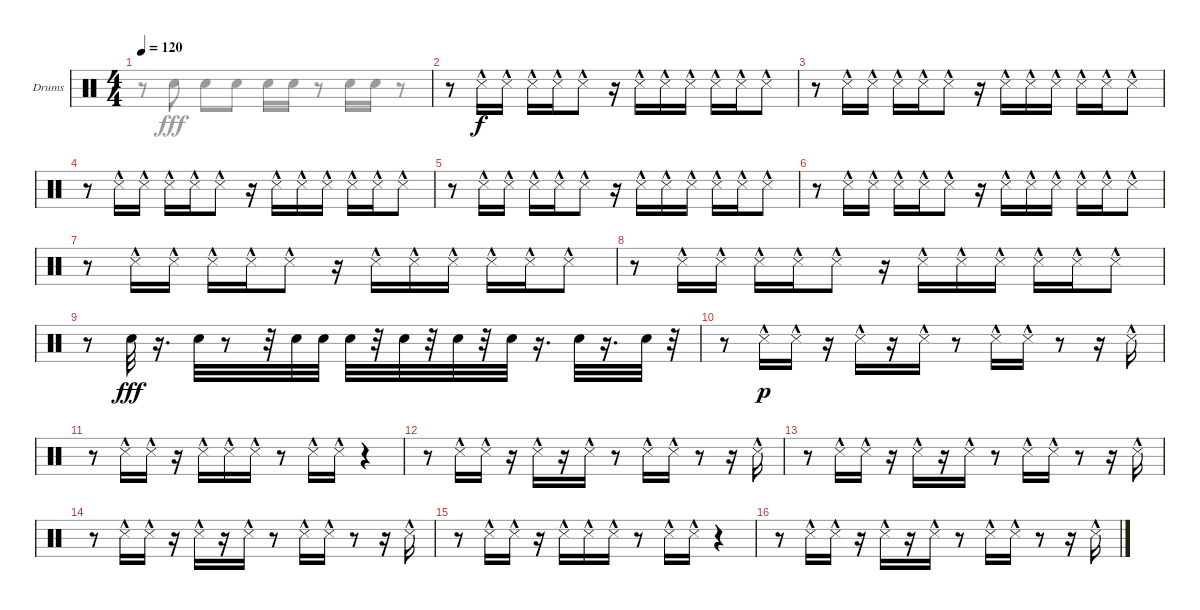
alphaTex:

\defaultSystemsLayout 4
\bracketExtendMode nobrackets
\firstSystemTrackNameOrientation horizontal
\otherSystemsTrackNameOrientation horizontal
\track ("Drumkit" "Drums") {instrument percussion}
\staff {score}
\articulation defaults
\voice
\ts (4 4)
\tempo 120
\clef neutral
\ks c
|
r.8 "Snare (side stick) 3"{hac}.16 "Snare (side stick) 3"{hac}.16 "Snare (side stick) 3"{hac}.16 "Snare (side stick) 3"{hac}.16 "Snare (side stick) 3"{hac}.8 r.16 "Snare (side stick) 3"{hac}.16 "Snare (side stick) 3"{hac}.16 "Snare (side stick) 3"{hac}.16 "Snare (side stick) 3"{hac}.16 "Snare (side stick) 3"{hac}.16 "Snare (side stick) 3"{hac}.8 |
r.8 "Snare (side stick) 3"{hac}.16 "Snare (side stick) 3"{hac}.16 "Snare (side stick) 3"{hac}.16 "Snare (side stick) 3"{hac}.16 "Snare (side stick) 3"{hac}.8 r.16 "Snare (side stick) 3"{hac}.16 "Snare (side stick) 3"{hac}.16 "Snare (side stick) 3"{hac}.16 "Snare (side stick) 3"{hac}.16 "Snare (side stick) 3"{hac}.16 "Snare (side stick) 3"{hac}.8 |
r.8 "Snare (side stick) 3"{hac}.16 "Snare (side stick) 3"{hac}.16 "Snare (side stick) 3"{hac}.16 "Snare (side stick) 3"{hac}.16 "Snare (side stick) 3"{hac}.8 r.16 "Snare (side stick) 3"{hac}.16 "Snare (side stick) 3"{hac}.16 "Snare (side stick) 3"{hac}.16 "Snare (side stick) 3"{hac}.16 "Snare (side stick) 3"{hac}.16 "Snare (side stick) 3"{hac}.8 |
r.8 "Snare (side stick) 3"{hac}.16 "Snare (side stick) 3"{hac}.16 "Snare (side stick) 3"{hac}.16 "Snare (side stick) 3"{hac}.16 "Snare (side stick) 3"{hac}.8 r.16 "Snare (side stick) 3"{hac}.16 "Snare (side stick) 3"{hac}.16 "Snare (side stick) 3"{hac}.16 "Snare (side stick) 3"{hac}.16 "Snare (side stick) 3"{hac}.16 "Snare (side stick) 3"{hac}.8 |
r.8 "Snare (side stick) 3"{hac}.16 "Snare (side stick) 3"{hac}.16 "Snare (side stick) 3"{hac}.16 "Snare (side stick) 3"{hac}.16 "Snare (side stick) 3"{hac}.8 r.16 "Snare (side stick) 3"{hac}.16 "Snare (side stick) 3"{hac}.16 "Snare (side stick) 3"{hac}.16 "Snare (side stick) 3"{hac}.16 "Snare (side stick) 3"{hac}.16 "Snare (side stick) 3"{hac}.8 |
r.8 "Snare (side stick) 3"{hac}.16 "Snare (side stick) 3"{hac}.16 "Snare (side stick) 3"{hac}.16 "Snare (side stick) 3"{hac}.16 "Snare (side stick) 3"{hac}.8 r.16 "Snare (side stick) 3"{hac}.16 "Snare (side stick) 3"{hac}.16 "Snare (side stick) 3"{hac}.16 "Snare (side stick) 3"{hac}.16 "Snare (side stick) 3"{hac}.16 "Snare (side stick) 3"{hac}.8 |
r.8 "Snare (side stick) 3"{hac}.16 "Snare (side stick) 3"{hac}.16 "Snare (side stick) 3"{hac}.16 "Snare (side stick) 3"{hac}.16 "Snare (side stick) 3"{hac}.8 r.16 "Snare (side stick) 3"{hac}.16 "Snare (side stick) 3"{hac}.16 "Snare (side stick) 3"{hac}.16 "Snare (side stick) 3"{hac}.16 "Snare (side stick) 3"{hac}.16 "Snare (side stick) 3"{hac}.8 |
r.8 "Snare (hit) 2".32{dy fff} r.16{d} "Snare (hit) 2".32 r.8 r.32 "Snare (hit) 2".32 "Snare (hit) 2".32 "Snare (hit) 2".32 r.32 "Snare (hit) 2".32 r.32 "Snare (hit) 2".32 r.32 "Snare (hit) 2".32 r.16{d} "Snare (hit) 2".32 r.16{d} "Snare (hit) 2".32 r.32 |
r.8 "Snare (side stick) 3"{hac}.16{dy p} "Snare (side stick) 3"{hac}.16 r.16 "Snare (side stick) 3"{hac}.16 r.16 "Snare (side stick) 3"{hac}.16 r.8 "Snare (side stick) 3"{hac}.16 "Snare (side stick) 3"{hac}.16 r.8 r.16 "Snare (side stick) 3"{hac}.16 |
r.8 "Snare (side stick) 3"{hac}.16 "Snare (side stick) 3"{hac}.16 r.16 "Snare (side stick) 3"{hac}.16 "Snare (side stick) 3"{hac}.16 "Snare (side stick) 3"{hac}.16 r.8 "Snare (side stick) 3"{hac}.16 "Snare (side stick) 3"{hac}.16 r.4 |
r.8 "Snare (side stick) 3"{hac}.16 "Snare (side stick) 3"{hac}.16 r.16 "Snare (side stick) 3"{hac}.16 r.16 "Snare (side stick) 3"{hac}.16 r.8 "Snare (side stick) 3"{hac}.16 "Snare (side stick) 3"{hac}.16 r.8 r.16 "Snare (side stick) 3"{hac}.16 |
r.8 "Snare (side stick) 3"{hac}.16 "Snare (side stick) 3"{hac}.16 r.16 "Snare (side stick) 3"{hac}.16 r.16 "Snare (side stick) 3"{hac}.16 r.8 "Snare (side stick) 3"{hac}.16 "Snare (side stick) 3"{hac}.16 r.8 r.16 "Snare (side stick) 3"{hac}.16 |
r.8 "Snare (side stick) 3"{hac}.16 "Snare (side stick) 3"{hac}.16 r.16 "Snare (side stick) 3"{hac}.16 r.16 "Snare (side stick) 3"{hac}.16 r.8 "Snare (side stick) 3"{hac}.16 "Snare (side stick) 3"{hac}.16 r.8 r.16 "Snare (side stick) 3"{hac}.16 |
r.8 "Snare (side stick) 3"{hac}.16 "Snare (side stick) 3"{hac}.16 r.16 "Snare (side stick) 3"{hac}.16 "Snare (side stick) 3"{hac}.16 "Snare (side stick) 3"{hac}.16 r.8 "Snare (side stick) 3"{hac}.16 "Snare (side stick) 3"{hac}.16 r.4 |
r.8 "Snare (side stick) 3"{hac}.16 "Snare (side stick) 3"{hac}.16 r.16 "Snare (side stick) 3"{hac}.16 r.16 "Snare (side stick) 3"{hac}.16 r.8 "Snare (side stick) 3"{hac}.16 "Snare (side stick) 3"{hac}.16 r.8 r.16 "Snare (side stick) 3"{hac}.16
\voice
\clef neutral
\ottava regular
\simile none
\ks c
r.8{dy fff} "Snare (hit) 2".8 "Snare (hit) 2".8 "Snare (hit) 2".8 "Snare (hit) 2".16 "Snare (hit) 2".16 r.8 "Snare (hit) 2".16 "Snare (hit) 2".16 r.8 |
|
|
|
|
|
|
|
|
|
|
|
|
|
|
